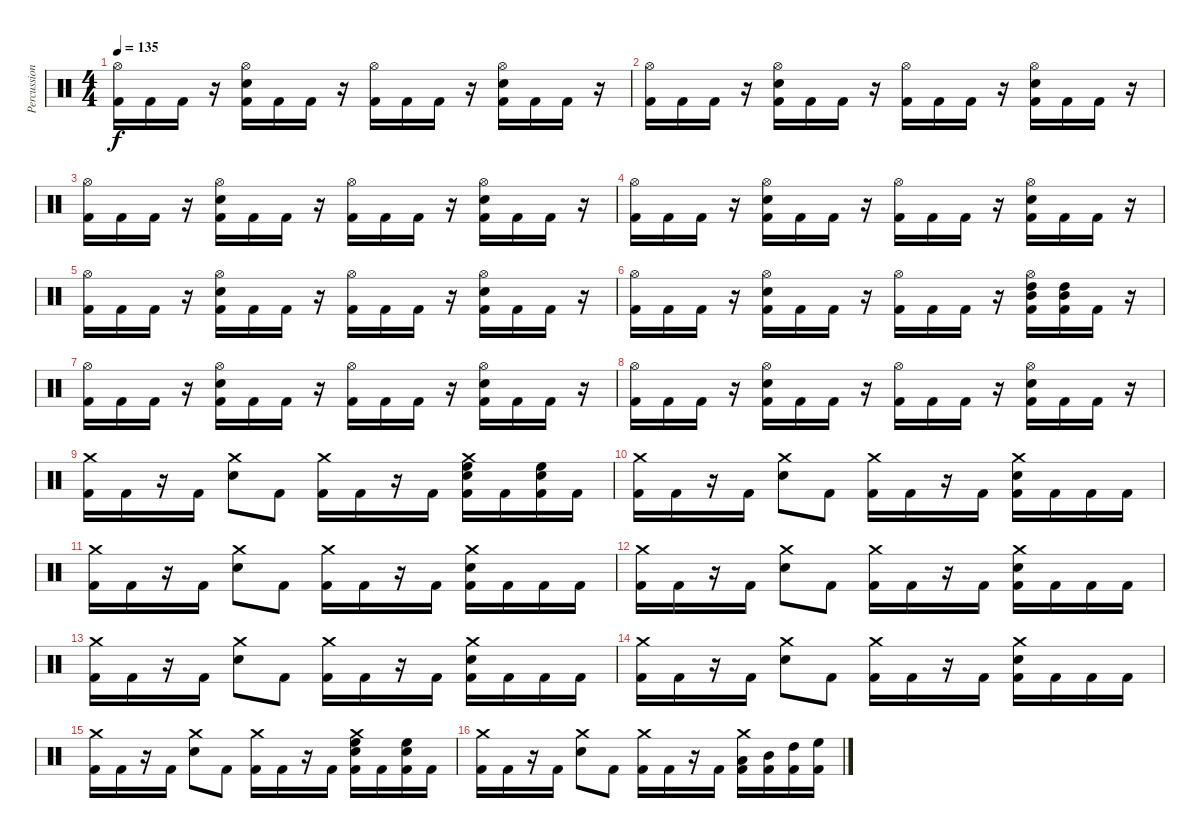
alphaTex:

\track ("Percussion" "Percussion") {instrument percussion}
\staff {score}
\articulation defaults
\ts (4 4)
\tempo 135
\clef neutral
\ks c
("Hi-Hat (open)" "Kick (hit) 2").16{dy f} "Kick (hit) 2".16 "Kick (hit) 2".16 r.16 ("Hi-Hat (open)" "Snare (hit) 2" "Kick (hit) 2").16 "Kick (hit) 2".16 "Kick (hit) 2".16 r.16 ("Hi-Hat (open)" "Kick (hit) 2").16 "Kick (hit) 2".16 "Kick (hit) 2".16 r.16 ("Hi-Hat (open)" "Snare (hit) 2" "Kick (hit) 2").16 "Kick (hit) 2".16 "Kick (hit) 2".16 r.16 |
("Hi-Hat (open)" "Kick (hit) 2").16 "Kick (hit) 2".16 "Kick (hit) 2".16 r.16 ("Hi-Hat (open)" "Snare (hit) 2" "Kick (hit) 2").16 "Kick (hit) 2".16 "Kick (hit) 2".16 r.16 ("Hi-Hat (open)" "Kick (hit) 2").16 "Kick (hit) 2".16 "Kick (hit) 2".16 r.16 ("Hi-Hat (open)" "Snare (hit) 2" "Kick (hit) 2").16 "Kick (hit) 2".16 "Kick (hit) 2".16 r.16 |
("Hi-Hat (open)" "Kick (hit) 2").16 "Kick (hit) 2".16 "Kick (hit) 2".16 r.16 ("Hi-Hat (open)" "Snare (hit) 2" "Kick (hit) 2").16 "Kick (hit) 2".16 "Kick (hit) 2".16 r.16 ("Hi-Hat (open)" "Kick (hit) 2").16 "Kick (hit) 2".16 "Kick (hit) 2".16 r.16 ("Hi-Hat (open)" "Snare (hit) 2" "Kick (hit) 2").16 "Kick (hit) 2".16 "Kick (hit) 2".16 r.16 |
("Hi-Hat (open)" "Kick (hit) 2").16 "Kick (hit) 2".16 "Kick (hit) 2".16 r.16 ("Hi-Hat (open)" "Snare (hit) 2" "Kick (hit) 2").16 "Kick (hit) 2".16 "Kick (hit) 2".16 r.16 ("Hi-Hat (open)" "Kick (hit) 2").16 "Kick (hit) 2".16 "Kick (hit) 2".16 r.16 ("Hi-Hat (open)" "Snare (hit) 2" "Kick (hit) 2").16 "Kick (hit) 2".16 "Kick (hit) 2".16 r.16 |
("Hi-Hat (open)" "Kick (hit) 2").16 "Kick (hit) 2".16 "Kick (hit) 2".16 r.16 ("Hi-Hat (open)" "Snare (hit) 2" "Kick (hit) 2").16 "Kick (hit) 2".16 "Kick (hit) 2".16 r.16 ("Hi-Hat (open)" "Kick (hit) 2").16 "Kick (hit) 2".16 "Kick (hit) 2".16 r.16 ("Hi-Hat (open)" "Snare (hit) 2" "Kick (hit) 2").16 "Kick (hit) 2".16 "Kick (hit) 2".16 r.16 |
("Hi-Hat (open)" "Kick (hit) 2").16 "Kick (hit) 2".16 "Kick (hit) 2".16 r.16 ("Hi-Hat (open)" "Snare (hit) 2" "Kick (hit) 2").16 "Kick (hit) 2".16 "Kick (hit) 2".16 r.16 ("Hi-Hat (open)" "Kick (hit) 2").16 "Kick (hit) 2".16 "Kick (hit) 2".16 r.16 ("Hi-Hat (open)" "High Tom (hit)" "Mid Tom (hit)" "Kick (hit) 2").16 ("High Tom (hit)" "Mid Tom (hit)" "Kick (hit) 2").16 "Kick (hit) 2".16 r.16 |
("Hi-Hat (open)" "Kick (hit) 2").16 "Kick (hit) 2".16 "Kick (hit) 2".16 r.16 ("Hi-Hat (open)" "Snare (hit) 2" "Kick (hit) 2").16 "Kick (hit) 2".16 "Kick (hit) 2".16 r.16 ("Hi-Hat (open)" "Kick (hit) 2").16 "Kick (hit) 2".16 "Kick (hit) 2".16 r.16 ("Hi-Hat (open)" "Snare (hit) 2" "Kick (hit) 2").16 "Kick (hit) 2".16 "Kick (hit) 2".16 r.16 |
("Hi-Hat (open)" "Kick (hit) 2").16 "Kick (hit) 2".16 "Kick (hit) 2".16 r.16 ("Hi-Hat (open)" "Snare (hit) 2" "Kick (hit) 2").16 "Kick (hit) 2".16 "Kick (hit) 2".16 r.16 ("Hi-Hat (open)" "Kick (hit) 2").16 "Kick (hit) 2".16 "Kick (hit) 2".16 r.16 ("Hi-Hat (open)" "Snare (hit) 2" "Kick (hit) 2").16 "Kick (hit) 2".16 "Kick (hit) 2".16 r.16 |
("Crash medium (hit)" "Kick (hit) 2").16 "Kick (hit) 2".16 r.16 "Kick (hit) 2".16 ("Crash medium (hit)" "Snare (hit) 2").8 "Kick (hit) 2".8 ("Crash medium (hit)" "Kick (hit) 2").16 "Kick (hit) 2".16 r.16 "Kick (hit) 2".16 ("Crash medium (hit)" "High Floor Tom (hit)" "Snare (hit) 2" "Kick (hit) 2").16 "Kick (hit) 2".16 ("High Floor Tom (hit)" "Snare (hit) 2" "Kick (hit) 2").16 "Kick (hit) 2".16 |
("Crash medium (hit)" "Kick (hit) 2").16 "Kick (hit) 2".16 r.16 "Kick (hit) 2".16 ("Crash medium (hit)" "Snare (hit) 2").8 "Kick (hit) 2".8 ("Crash medium (hit)" "Kick (hit) 2").16 "Kick (hit) 2".16 r.16 "Kick (hit) 2".16 ("Crash medium (hit)" "Snare (hit) 2" "Kick (hit) 2").16 "Kick (hit) 2".16 "Kick (hit) 2".16 "Kick (hit) 2".16 |
("Crash medium (hit)" "Kick (hit) 2").16 "Kick (hit) 2".16 r.16 "Kick (hit) 2".16 ("Crash medium (hit)" "Snare (hit) 2").8 "Kick (hit) 2".8 ("Crash medium (hit)" "Kick (hit) 2").16 "Kick (hit) 2".16 r.16 "Kick (hit) 2".16 ("Crash medium (hit)" "Snare (hit) 2" "Kick (hit) 2").16 "Kick (hit) 2".16 "Kick (hit) 2".16 "Kick (hit) 2".16 |
("Crash medium (hit)" "Kick (hit) 2").16 "Kick (hit) 2".16 r.16 "Kick (hit) 2".16 ("Crash medium (hit)" "Snare (hit) 2").8 "Kick (hit) 2".8 ("Crash medium (hit)" "Kick (hit) 2").16 "Kick (hit) 2".16 r.16 "Kick (hit) 2".16 ("Crash medium (hit)" "Snare (hit) 2" "Kick (hit) 2").16 "Kick (hit) 2".16 "Kick (hit) 2".16 "Kick (hit) 2".16 |
("Crash medium (hit)" "Kick (hit) 2").16 "Kick (hit) 2".16 r.16 "Kick (hit) 2".16 ("Crash medium (hit)" "Snare (hit) 2").8 "Kick (hit) 2".8 ("Crash medium (hit)" "Kick (hit) 2").16 "Kick (hit) 2".16 r.16 "Kick (hit) 2".16 ("Crash medium (hit)" "Snare (hit) 2" "Kick (hit) 2").16 "Kick (hit) 2".16 "Kick (hit) 2".16 "Kick (hit) 2".16 |
("Crash medium (hit)" "Kick (hit) 2").16 "Kick (hit) 2".16 r.16 "Kick (hit) 2".16 ("Crash medium (hit)" "Snare (hit) 2").8 "Kick (hit) 2".8 ("Crash medium (hit)" "Kick (hit) 2").16 "Kick (hit) 2".16 r.16 "Kick (hit) 2".16 ("Crash medium (hit)" "Snare (hit) 2" "Kick (hit) 2").16 "Kick (hit) 2".16 "Kick (hit) 2".16 "Kick (hit) 2".16 |
("Crash medium (hit)" "Kick (hit) 2").16 "Kick (hit) 2".16 r.16 "Kick (hit) 2".16 ("Crash medium (hit)" "Snare (hit) 2").8 "Kick (hit) 2".8 ("Crash medium (hit)" "Kick (hit) 2").16 "Kick (hit) 2".16 r.16 "Kick (hit) 2".16 ("Crash medium (hit)" "High Floor Tom (hit)" "Snare (hit) 2" "Kick (hit) 2").16 "Kick (hit) 2".16 ("High Floor Tom (hit)" "Snare (hit) 2" "Kick (hit) 2").16 "Kick (hit) 2".16 |
("Crash medium (hit)" "Kick (hit) 2").16 "Kick (hit) 2".16 r.16 "Kick (hit) 2".16 ("Crash medium (hit)" "Snare (hit) 2").8 "Kick (hit) 2".8 ("Crash medium (hit)" "Kick (hit) 2").16 "Kick (hit) 2".16 r.16 "Kick (hit) 2".16 ("Crash medium (hit)" "Low Tom (hit)" "Kick (hit) 2").16 ("Mid Tom (hit)" "Kick (hit) 2").16 ("High Tom (hit)" "Kick (hit) 2").16 ("High Floor Tom (hit)" "Kick (hit) 2").16
